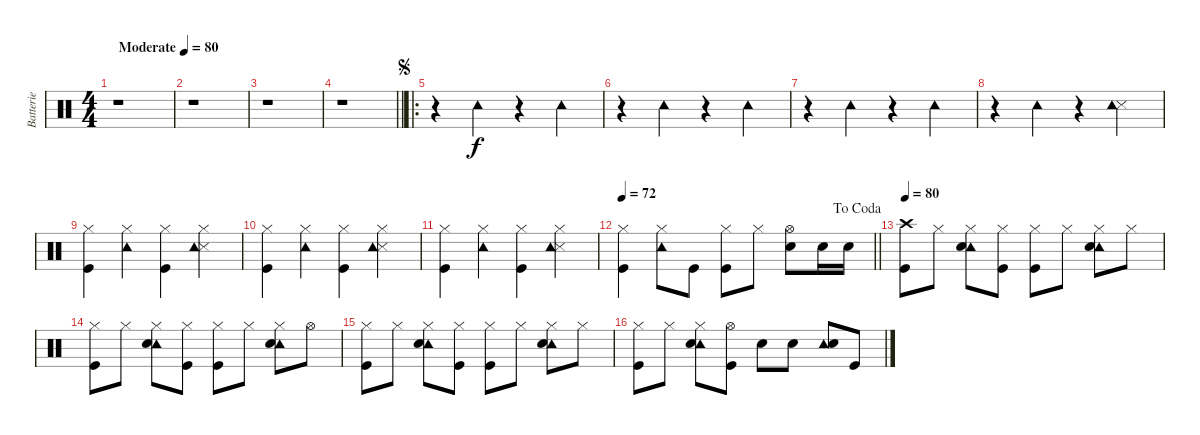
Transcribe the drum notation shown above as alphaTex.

\track ("Batterie" "Batterie") {instrument percussion}
\staff {score}
\articulation defaults
\ts (4 4)
\tempo (80 "Moderate")
\clef neutral
\ks c
r.1{dy f} |
r.1 |
r.1 |
\barLineRight lightlight
r.1 |
\ro
\jump segno
r.4 "Tambourine (hit)".4 r.4 "Tambourine (hit)".4 |
r.4 "Tambourine (hit)".4 r.4 "Tambourine (hit)".4 |
r.4 "Tambourine (hit)".4 r.4 "Tambourine (hit)".4 |
r.4 "Tambourine (hit)".4 r.4 ("Snare (side stick) 3" "Tambourine (hit)").4 |
("Hi-Hat (closed)" "Kick (hit)").4 ("Hi-Hat (closed)" "Tambourine (hit)").4 ("Hi-Hat (closed)" "Kick (hit)").4 ("Hi-Hat (closed)" "Snare (side stick) 3" "Tambourine (hit)").4 |
("Hi-Hat (closed)" "Kick (hit)").4 ("Hi-Hat (closed)" "Tambourine (hit)").4 ("Hi-Hat (closed)" "Kick (hit)").4 ("Hi-Hat (closed)" "Snare (side stick) 3" "Tambourine (hit)").4 |
("Hi-Hat (closed)" "Kick (hit)").4 ("Hi-Hat (closed)" "Tambourine (hit)").4 ("Hi-Hat (closed)" "Kick (hit)").4 ("Hi-Hat (closed)" "Snare (side stick) 3" "Tambourine (hit)").4 |
\jump dacoda
\tempo 72
\barLineRight lightlight
("Hi-Hat (closed)" "Kick (hit)").4 ("Hi-Hat (closed)" "Tambourine (hit)").8 "Kick (hit)".8 ("Hi-Hat (closed)" "Kick (hit)").8 "Hi-Hat (closed)".8 ("Hi-Hat (open)" "Electric Snare (hit)").8 "Electric Snare (hit)".16 "Electric Snare (hit)".16 |
\tempo 80
("Crash high (hit)" "Kick (hit)").8 "Hi-Hat (closed)".8 ("Hi-Hat (closed)" "Tambourine (hit)" "Electric Snare (hit)").8 ("Hi-Hat (closed)" "Kick (hit)").8 ("Hi-Hat (closed)" "Kick (hit)").8 "Hi-Hat (closed)".8 ("Hi-Hat (closed)" "Tambourine (hit)" "Electric Snare (hit)").8 "Hi-Hat (closed)".8 |
("Hi-Hat (closed)" "Kick (hit)").8 "Hi-Hat (closed)".8 ("Hi-Hat (closed)" "Tambourine (hit)" "Electric Snare (hit)").8 ("Hi-Hat (closed)" "Kick (hit)").8 ("Hi-Hat (closed)" "Kick (hit)").8 "Hi-Hat (closed)".8 ("Hi-Hat (closed)" "Tambourine (hit)" "Electric Snare (hit)").8 "Hi-Hat (open)".8 |
("Hi-Hat (closed)" "Kick (hit)").8 "Hi-Hat (closed)".8 ("Hi-Hat (closed)" "Tambourine (hit)" "Electric Snare (hit)").8 ("Hi-Hat (closed)" "Kick (hit)").8 ("Hi-Hat (closed)" "Kick (hit)").8 "Hi-Hat (closed)".8 ("Hi-Hat (closed)" "Tambourine (hit)" "Electric Snare (hit)").8 "Hi-Hat (closed)".8 |
("Hi-Hat (closed)" "Kick (hit)").8 "Hi-Hat (closed)".8 ("Hi-Hat (closed)" "Tambourine (hit)" "Electric Snare (hit)").8 ("Hi-Hat (open)" "Kick (hit)").8 "Electric Snare (hit)".8 "Electric Snare (hit)".8 ("Tambourine (hit)" "Electric Snare (hit)").8 "Kick (hit)".8
